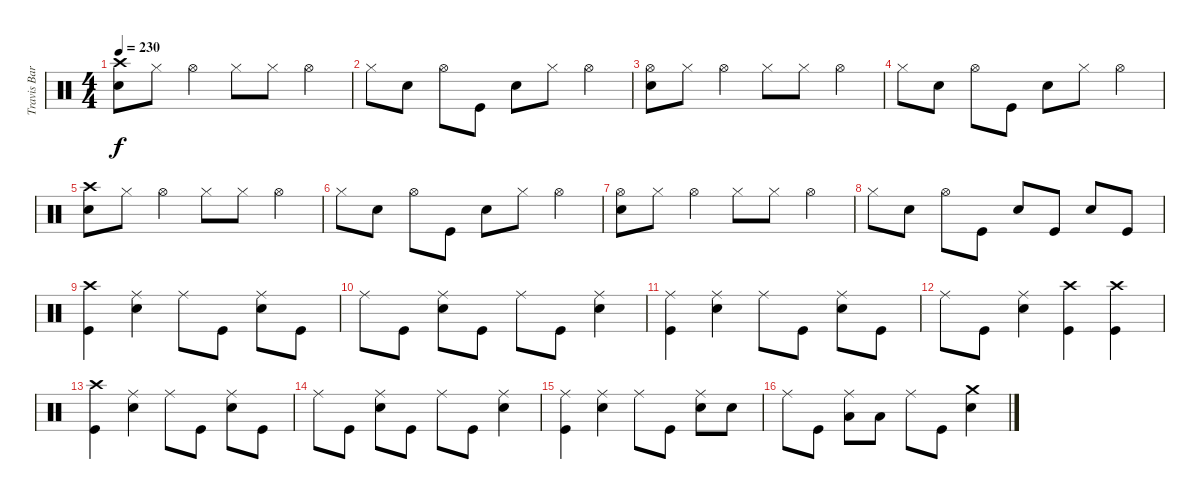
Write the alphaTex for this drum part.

\track ("Travis Barker" "Travis Bar") {instrument percussion}
\staff {score}
\articulation defaults
\ts (4 4)
\tempo 230
\clef neutral
\ks c
("Crash high (hit)" "Electric Snare (hit)").8{dy f} "Hi-Hat (closed)".8 "Hi-Hat (open)".4 "Hi-Hat (closed)".8 "Hi-Hat (closed)".8 "Hi-Hat (open)".4 |
"Hi-Hat (closed)".8 "Electric Snare (hit)".8 "Hi-Hat (open)".8 "Kick (hit)".8 "Electric Snare (hit)".8 "Hi-Hat (closed)".8 "Hi-Hat (open)".4 |
("Hi-Hat (open)" "Electric Snare (hit)").8 "Hi-Hat (closed)".8 "Hi-Hat (open)".4 "Hi-Hat (closed)".8 "Hi-Hat (closed)".8 "Hi-Hat (open)".4 |
"Hi-Hat (closed)".8 "Electric Snare (hit)".8 "Hi-Hat (open)".8 "Kick (hit)".8 "Electric Snare (hit)".8 "Hi-Hat (closed)".8 "Hi-Hat (open)".4 |
("Crash high (hit)" "Electric Snare (hit)").8 "Hi-Hat (closed)".8 "Hi-Hat (open)".4 "Hi-Hat (closed)".8 "Hi-Hat (closed)".8 "Hi-Hat (open)".4 |
"Hi-Hat (closed)".8 "Electric Snare (hit)".8 "Hi-Hat (open)".8 "Kick (hit)".8 "Electric Snare (hit)".8 "Hi-Hat (closed)".8 "Hi-Hat (open)".4 |
("Hi-Hat (open)" "Electric Snare (hit)").8 "Hi-Hat (closed)".8 "Hi-Hat (open)".4 "Hi-Hat (closed)".8 "Hi-Hat (closed)".8 "Hi-Hat (open)".4 |
"Hi-Hat (closed)".8 "Electric Snare (hit)".8 "Hi-Hat (open)".8 "Kick (hit)".8 "Electric Snare (hit)".8 "Kick (hit)".8 "Electric Snare (hit)".8 "Kick (hit)".8 |
("Crash high (hit)" "Kick (hit)").4 ("Ride (middle)" "Electric Snare (hit)").4 "Ride (middle)".8 "Kick (hit)".8 ("Ride (middle)" "Electric Snare (hit)").8 "Kick (hit)".8 |
"Ride (middle)".8 "Kick (hit)".8 ("Ride (middle)" "Electric Snare (hit)").8 "Kick (hit)".8 "Ride (middle)".8 "Kick (hit)".8 ("Ride (middle)" "Electric Snare (hit)").4 |
("Ride (middle)" "Kick (hit)").4 ("Ride (middle)" "Electric Snare (hit)").4 "Ride (middle)".8 "Kick (hit)".8 ("Ride (middle)" "Electric Snare (hit)").8 "Kick (hit)".8 |
"Ride (middle)".8 "Kick (hit)".8 ("Ride (middle)" "Electric Snare (hit)").4 ("Crash high (hit)" "Kick (hit)").4 ("Crash high (hit)" "Kick (hit)").4 |
("Crash high (hit)" "Kick (hit)").4 ("Ride (middle)" "Electric Snare (hit)").4 "Ride (middle)".8 "Kick (hit)".8 ("Ride (middle)" "Electric Snare (hit)").8 "Kick (hit)".8 |
"Ride (middle)".8 "Kick (hit)".8 ("Ride (middle)" "Electric Snare (hit)").8 "Kick (hit)".8 "Ride (middle)".8 "Kick (hit)".8 ("Ride (middle)" "Electric Snare (hit)").4 |
("Ride (middle)" "Kick (hit)").4 ("Ride (middle)" "Electric Snare (hit)").4 "Ride (middle)".8 "Kick (hit)".8 ("Ride (middle)" "Electric Snare (hit)").8 "Electric Snare (hit)".8 |
"Ride (middle)".8 "Kick (hit)".8 ("Ride (middle)" "Low Tom (hit)").8 "Low Tom (hit)".8 "Ride (middle)".8 "Kick (hit)".8 ("Crash medium (hit)" "Electric Snare (hit)").4
